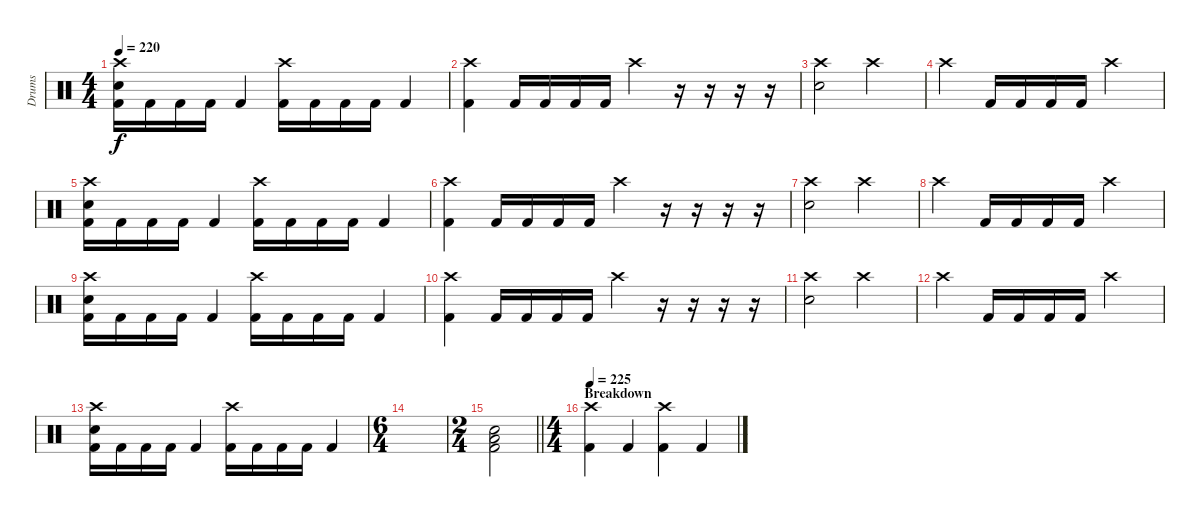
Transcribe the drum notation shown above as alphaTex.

\track ("Drums" "Drums") {instrument percussion}
\staff {score}
\articulation defaults
\ts (4 4)
\tempo 220
\clef neutral
\ks c
("Crash high (hit)" "Electric Snare (hit)" "Kick (hit) 2").16{dy f} "Kick (hit) 2".16 "Kick (hit) 2".16 "Kick (hit) 2".16 "Kick (hit) 2".4 ("Crash high (hit)" "Kick (hit) 2").16 "Kick (hit) 2".16 "Kick (hit) 2".16 "Kick (hit) 2".16 "Kick (hit) 2".4 |
("Crash high (hit)" "Kick (hit) 2").4 "Kick (hit) 2".16 "Kick (hit) 2".16 "Kick (hit) 2".16 "Kick (hit) 2".16 "Crash high (hit)".4 r.16 r.16 r.16 r.16 |
("Crash high (hit)" "Electric Snare (hit)").2 "Crash high (hit)".2 |
"Crash high (hit)".4 "Kick (hit) 2".16 "Kick (hit) 2".16 "Kick (hit) 2".16 "Kick (hit) 2".16 "Crash high (hit)".2 |
("Crash high (hit)" "Electric Snare (hit)" "Kick (hit) 2").16 "Kick (hit) 2".16 "Kick (hit) 2".16 "Kick (hit) 2".16 "Kick (hit) 2".4 ("Crash high (hit)" "Kick (hit) 2").16 "Kick (hit) 2".16 "Kick (hit) 2".16 "Kick (hit) 2".16 "Kick (hit) 2".4 |
("Crash high (hit)" "Kick (hit) 2").4 "Kick (hit) 2".16 "Kick (hit) 2".16 "Kick (hit) 2".16 "Kick (hit) 2".16 "Crash high (hit)".4 r.16 r.16 r.16 r.16 |
("Crash high (hit)" "Electric Snare (hit)").2 "Crash high (hit)".2 |
"Crash high (hit)".4 "Kick (hit) 2".16 "Kick (hit) 2".16 "Kick (hit) 2".16 "Kick (hit) 2".16 "Crash high (hit)".2 |
("Crash high (hit)" "Electric Snare (hit)" "Kick (hit) 2").16 "Kick (hit) 2".16 "Kick (hit) 2".16 "Kick (hit) 2".16 "Kick (hit) 2".4 ("Crash high (hit)" "Kick (hit) 2").16 "Kick (hit) 2".16 "Kick (hit) 2".16 "Kick (hit) 2".16 "Kick (hit) 2".4 |
("Crash high (hit)" "Kick (hit) 2").4 "Kick (hit) 2".16 "Kick (hit) 2".16 "Kick (hit) 2".16 "Kick (hit) 2".16 "Crash high (hit)".4 r.16 r.16 r.16 r.16 |
("Crash high (hit)" "Electric Snare (hit)").2 "Crash high (hit)".2 |
"Crash high (hit)".4 "Kick (hit) 2".16 "Kick (hit) 2".16 "Kick (hit) 2".16 "Kick (hit) 2".16 "Crash high (hit)".2 |
("Crash high (hit)" "Electric Snare (hit)" "Kick (hit) 2").16 "Kick (hit) 2".16 "Kick (hit) 2".16 "Kick (hit) 2".16 "Kick (hit) 2".4 ("Crash high (hit)" "Kick (hit) 2").16 "Kick (hit) 2".16 "Kick (hit) 2".16 "Kick (hit) 2".16 "Kick (hit) 2".4 |
\ts (6 4)
|
\ts (2 4)
\barLineRight lightlight
("Low Floor Tom (hit)" "Electric Snare (hit)" "Kick (hit) 2").2 |
\ts (4 4)
\section ("" "Breakdown")
\tempo 225
("Crash high (hit)" "Kick (hit) 2").4 "Kick (hit) 2".4 ("Crash high (hit)" "Kick (hit) 2").4 "Kick (hit) 2".4
